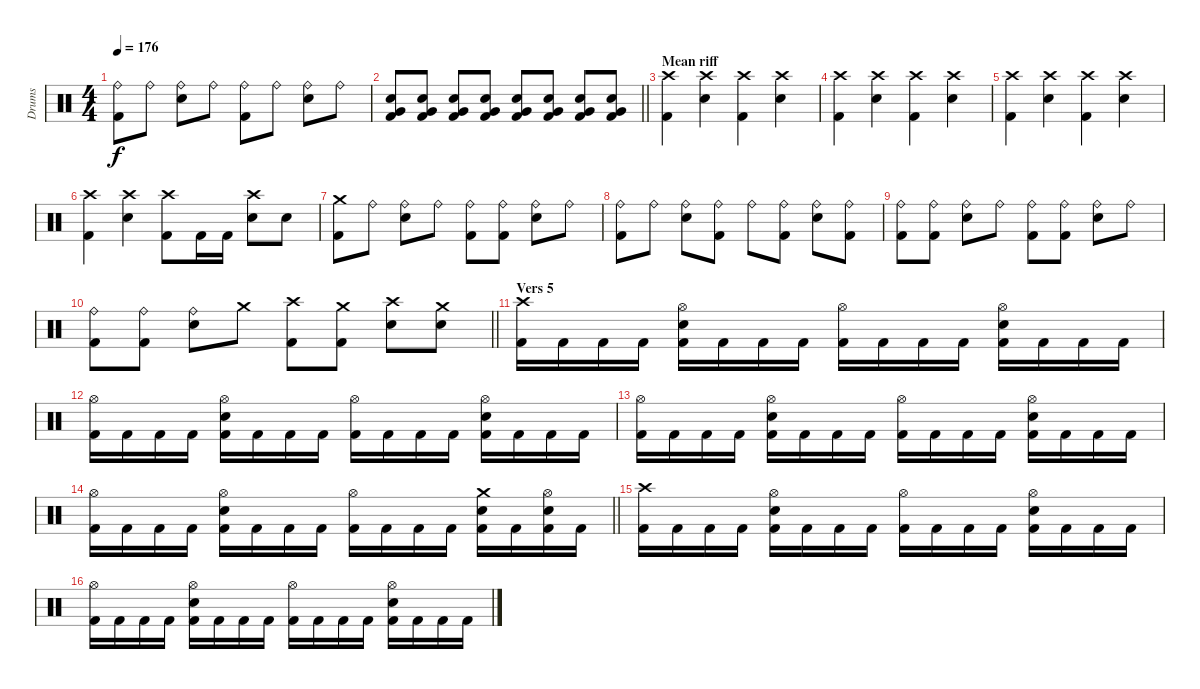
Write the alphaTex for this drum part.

\track ("Drums" "Drums") {instrument percussion}
\staff {score}
\articulation defaults
\ts (4 4)
\tempo 176
\clef neutral
\ks c
("Ride (bell)" "Kick (hit) 2").8{dy f} "Ride (bell)".8 ("Ride (bell)" "Snare (hit) 2").8 "Ride (bell)".8 ("Ride (bell)" "Kick (hit) 2").8 "Ride (bell)".8 ("Ride (bell)" "Snare (hit) 2").8 "Ride (bell)".8 |
\barLineRight lightlight
("Very Low Tom (hit)" "Snare (hit) 2" "Kick (hit) 2").8{volume 8} ("Very Low Tom (hit)" "Snare (hit) 2" "Kick (hit) 2").8{volume 9} ("Very Low Tom (hit)" "Snare (hit) 2" "Kick (hit) 2").8{volume 10} ("Very Low Tom (hit)" "Snare (hit) 2" "Kick (hit) 2").8{volume 11} ("Very Low Tom (hit)" "Snare (hit) 2" "Kick (hit) 2").8{volume 12} ("Very Low Tom (hit)" "Snare (hit) 2" "Kick (hit) 2").8{volume 13} ("Very Low Tom (hit)" "Snare (hit) 2" "Kick (hit) 2").8{volume 14} ("Very Low Tom (hit)" "Snare (hit) 2" "Kick (hit) 2").8{volume 15} |
\section ("" "Mean riff")
("Crash high (hit)" "Kick (hit) 2").4 ("Crash high (hit)" "Snare (hit) 2").4 ("Crash high (hit)" "Kick (hit) 2").4 ("Crash high (hit)" "Snare (hit) 2").4 |
("Crash high (hit)" "Kick (hit) 2").4 ("Crash high (hit)" "Snare (hit) 2").4 ("Crash high (hit)" "Kick (hit) 2").4 ("Crash high (hit)" "Snare (hit) 2").4 |
("Crash high (hit)" "Kick (hit) 2").4 ("Crash high (hit)" "Snare (hit) 2").4 ("Crash high (hit)" "Kick (hit) 2").4 ("Crash high (hit)" "Snare (hit) 2").4 |
("Crash high (hit)" "Kick (hit) 2").4 ("Crash high (hit)" "Snare (hit) 2").4 ("Crash high (hit)" "Kick (hit) 2").8 "Kick (hit) 2".16 "Kick (hit) 2".16 ("Crash high (hit)" "Snare (hit) 2").8 "Snare (hit) 2".8 |
("Crash medium (hit)" "Kick (hit) 2").8 "Ride (bell)".8 ("Ride (bell)" "Snare (hit) 2").8 "Ride (bell)".8 ("Ride (bell)" "Kick (hit) 2").8 ("Ride (bell)" "Kick (hit) 2").8 ("Ride (bell)" "Snare (hit) 2").8 "Ride (bell)".8 |
("Ride (bell)" "Kick (hit) 2").8 "Ride (bell)".8 ("Ride (bell)" "Snare (hit) 2").8 ("Ride (bell)" "Kick (hit) 2").8 "Ride (bell)".8 ("Ride (bell)" "Kick (hit) 2").8 ("Ride (bell)" "Snare (hit) 2").8 ("Ride (bell)" "Kick (hit) 2").8 |
("Ride (bell)" "Kick (hit) 2").8 ("Ride (bell)" "Kick (hit) 2").8 ("Ride (bell)" "Snare (hit) 2").8 "Ride (bell)".8 ("Ride (bell)" "Kick (hit) 2").8 ("Ride (bell)" "Kick (hit) 2").8 ("Ride (bell)" "Snare (hit) 2").8 "Ride (bell)".8 |
\barLineRight lightlight
("Ride (bell)" "Kick (hit) 2").8 ("Ride (bell)" "Kick (hit) 2").8 ("Ride (bell)" "Snare (hit) 2").8 "Crash medium (hit)".8 ("Crash high (hit)" "Kick (hit) 2").8 ("Crash medium (hit)" "Kick (hit) 2").8 ("Crash high (hit)" "Snare (hit) 2").8 ("Crash medium (hit)" "Snare (hit) 2").8 |
\section ("" "Vers 5")
("Crash high (hit)" "Kick (hit) 2").16 "Kick (hit) 2".16 "Kick (hit) 2".16 "Kick (hit) 2".16 ("Hi-Hat (open)" "Snare (hit) 2" "Kick (hit) 2").16 "Kick (hit) 2".16 "Kick (hit) 2".16 "Kick (hit) 2".16 ("Hi-Hat (open)" "Kick (hit) 2").16 "Kick (hit) 2".16 "Kick (hit) 2".16 "Kick (hit) 2".16 ("Hi-Hat (open)" "Snare (hit) 2" "Kick (hit) 2").16 "Kick (hit) 2".16 "Kick (hit) 2".16 "Kick (hit) 2".16 |
("Hi-Hat (open)" "Kick (hit) 2").16 "Kick (hit) 2".16 "Kick (hit) 2".16 "Kick (hit) 2".16 ("Hi-Hat (open)" "Snare (hit) 2" "Kick (hit) 2").16 "Kick (hit) 2".16 "Kick (hit) 2".16 "Kick (hit) 2".16 ("Hi-Hat (open)" "Kick (hit) 2").16 "Kick (hit) 2".16 "Kick (hit) 2".16 "Kick (hit) 2".16 ("Hi-Hat (open)" "Snare (hit) 2" "Kick (hit) 2").16 "Kick (hit) 2".16 "Kick (hit) 2".16 "Kick (hit) 2".16 |
("Hi-Hat (open)" "Kick (hit) 2").16 "Kick (hit) 2".16 "Kick (hit) 2".16 "Kick (hit) 2".16 ("Hi-Hat (open)" "Snare (hit) 2" "Kick (hit) 2").16 "Kick (hit) 2".16 "Kick (hit) 2".16 "Kick (hit) 2".16 ("Hi-Hat (open)" "Kick (hit) 2").16 "Kick (hit) 2".16 "Kick (hit) 2".16 "Kick (hit) 2".16 ("Hi-Hat (open)" "Snare (hit) 2" "Kick (hit) 2").16 "Kick (hit) 2".16 "Kick (hit) 2".16 "Kick (hit) 2".16 |
\barLineRight lightlight
("Hi-Hat (open)" "Kick (hit) 2").16 "Kick (hit) 2".16 "Kick (hit) 2".16 "Kick (hit) 2".16 ("Hi-Hat (open)" "Snare (hit) 2" "Kick (hit) 2").16 "Kick (hit) 2".16 "Kick (hit) 2".16 "Kick (hit) 2".16 ("Hi-Hat (open)" "Kick (hit) 2").16 "Kick (hit) 2".16 "Kick (hit) 2".16 "Kick (hit) 2".16 ("Crash medium (hit)" "Snare (hit) 2" "Kick (hit) 2").16 "Kick (hit) 2".16 ("Hi-Hat (open)" "Snare (hit) 2" "Kick (hit) 2").16 "Kick (hit) 2".16 |
("Crash high (hit)" "Kick (hit) 2").16 "Kick (hit) 2".16 "Kick (hit) 2".16 "Kick (hit) 2".16 ("Hi-Hat (open)" "Snare (hit) 2" "Kick (hit) 2").16 "Kick (hit) 2".16 "Kick (hit) 2".16 "Kick (hit) 2".16 ("Hi-Hat (open)" "Kick (hit) 2").16 "Kick (hit) 2".16 "Kick (hit) 2".16 "Kick (hit) 2".16 ("Hi-Hat (open)" "Snare (hit) 2" "Kick (hit) 2").16 "Kick (hit) 2".16 "Kick (hit) 2".16 "Kick (hit) 2".16 |
("Hi-Hat (open)" "Kick (hit) 2").16 "Kick (hit) 2".16 "Kick (hit) 2".16 "Kick (hit) 2".16 ("Hi-Hat (open)" "Snare (hit) 2" "Kick (hit) 2").16 "Kick (hit) 2".16 "Kick (hit) 2".16 "Kick (hit) 2".16 ("Hi-Hat (open)" "Kick (hit) 2").16 "Kick (hit) 2".16 "Kick (hit) 2".16 "Kick (hit) 2".16 ("Hi-Hat (open)" "Snare (hit) 2" "Kick (hit) 2").16 "Kick (hit) 2".16 "Kick (hit) 2".16 "Kick (hit) 2".16
